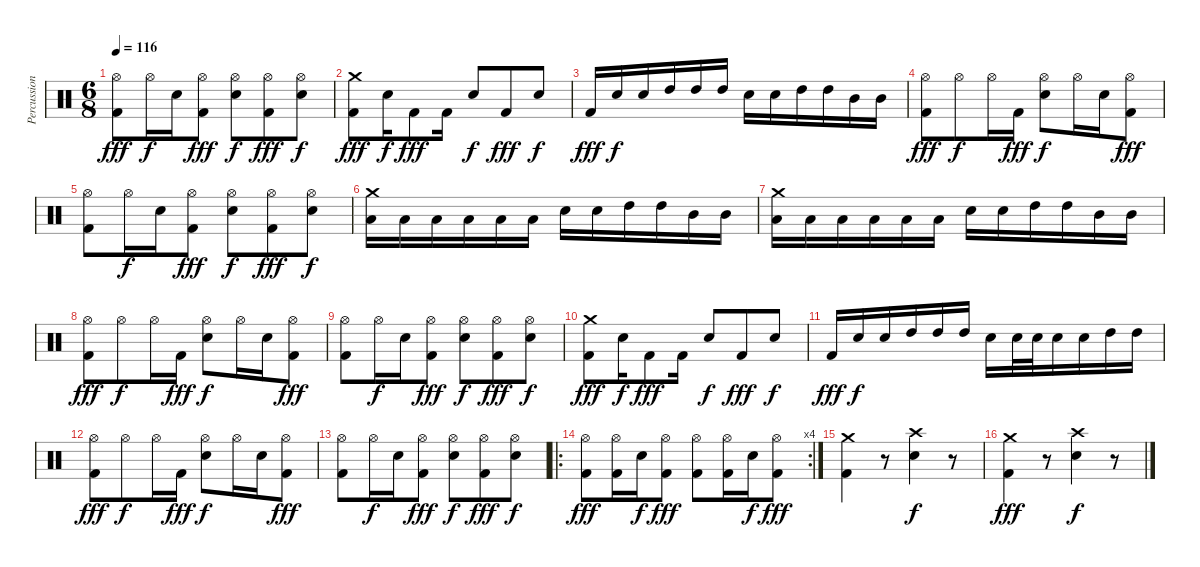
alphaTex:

\track ("Percussions" "Percussion") {instrument percussion}
\staff {score}
\articulation defaults
\ts (6 8)
\tempo 116
\clef neutral
\ks c
("Hi-Hat (open)" "Kick (hit) 2").8{dy fff} "Hi-Hat (open)".16{dy f} "Snare (hit) 2".16 ("Hi-Hat (open)" "Kick (hit) 2").8{dy fff} ("Hi-Hat (open)" "Snare (hit) 2").8{dy f} ("Hi-Hat (open)" "Kick (hit) 2").8{dy fff} ("Hi-Hat (open)" "Snare (hit) 2").8{dy f} |
("Crash medium (hit)" "Kick (hit) 2").8{dy fff} "Snare (hit) 2".16{dy f} "Kick (hit) 2".8{dy fff} "Kick (hit) 2".16 "Snare (hit) 2".8{dy f} "Kick (hit) 2".8{dy fff} "Snare (hit) 2".8{dy f} |
"Kick (hit) 2".16{dy fff} "Snare (hit) 2".16{dy f} "Snare (hit) 2".16 "High Tom (hit)".16 "High Tom (hit)".16 "High Tom (hit)".16 "Snare (hit) 2".16 "Snare (hit) 2".16 "High Tom (hit)".16 "High Tom (hit)".16 "Mid Tom (hit)".16 "Mid Tom (hit)".16 |
("Hi-Hat (open)" "Kick (hit) 2").8{dy fff} "Hi-Hat (open)".8{dy f} "Hi-Hat (open)".16 "Kick (hit) 2".16{dy fff} ("Hi-Hat (open)" "Snare (hit) 2").8{dy f} "Hi-Hat (open)".16 "Snare (hit) 2".16 ("Hi-Hat (open)" "Kick (hit) 2").8{dy fff} |
("Hi-Hat (open)" "Kick (hit) 2").8 "Hi-Hat (open)".16{dy f} "Snare (hit) 2".16 ("Hi-Hat (open)" "Kick (hit) 2").8{dy fff} ("Hi-Hat (open)" "Snare (hit) 2").8{dy f} ("Hi-Hat (open)" "Kick (hit) 2").8{dy fff} ("Hi-Hat (open)" "Snare (hit) 2").8{dy f} |
("Crash medium (hit)" "Low Tom (hit)").16 "Low Tom (hit)".16 "Low Tom (hit)".16 "Low Tom (hit)".16 "Low Tom (hit)".16 "Low Tom (hit)".16 "Snare (hit) 2".16 "Snare (hit) 2".16 "High Tom (hit)".16 "High Tom (hit)".16 "Mid Tom (hit)".16 "Mid Tom (hit)".16 |
("Crash medium (hit)" "Low Tom (hit)").16 "Low Tom (hit)".16 "Low Tom (hit)".16 "Low Tom (hit)".16 "Low Tom (hit)".16 "Low Tom (hit)".16 "Snare (hit) 2".16 "Snare (hit) 2".16 "High Tom (hit)".16 "High Tom (hit)".16 "Mid Tom (hit)".16 "Mid Tom (hit)".16 |
("Hi-Hat (open)" "Kick (hit) 2").8{dy fff} "Hi-Hat (open)".8{dy f} "Hi-Hat (open)".16 "Kick (hit) 2".16{dy fff} ("Hi-Hat (open)" "Snare (hit) 2").8{dy f} "Hi-Hat (open)".16 "Snare (hit) 2".16 ("Hi-Hat (open)" "Kick (hit) 2").8{dy fff} |
("Hi-Hat (open)" "Kick (hit) 2").8 "Hi-Hat (open)".16{dy f} "Snare (hit) 2".16 ("Hi-Hat (open)" "Kick (hit) 2").8{dy fff} ("Hi-Hat (open)" "Snare (hit) 2").8{dy f} ("Hi-Hat (open)" "Kick (hit) 2").8{dy fff} ("Hi-Hat (open)" "Snare (hit) 2").8{dy f} |
("Crash medium (hit)" "Kick (hit) 2").8{dy fff} "Snare (hit) 2".16{dy f} "Kick (hit) 2".8{dy fff} "Kick (hit) 2".16 "Snare (hit) 2".8{dy f} "Kick (hit) 2".8{dy fff} "Snare (hit) 2".8{dy f} |
"Kick (hit) 2".16{dy fff} "Snare (hit) 2".16{dy f} "Snare (hit) 2".16 "High Tom (hit)".16 "High Tom (hit)".16 "High Tom (hit)".16 "Snare (hit) 2".16 "Snare (hit) 2".32 "Snare (hit) 2".32 "Snare (hit) 2".16 "Snare (hit) 2".16 "High Tom (hit)".16 "High Tom (hit)".16 |
("Hi-Hat (open)" "Kick (hit) 2").8{dy fff} "Hi-Hat (open)".8{dy f} "Hi-Hat (open)".16 "Kick (hit) 2".16{dy fff} ("Hi-Hat (open)" "Snare (hit) 2").8{dy f} "Hi-Hat (open)".16 "Snare (hit) 2".16 ("Hi-Hat (open)" "Kick (hit) 2").8{dy fff} |
("Hi-Hat (open)" "Kick (hit) 2").8 "Hi-Hat (open)".16{dy f} "Snare (hit) 2".16 ("Hi-Hat (open)" "Kick (hit) 2").8{dy fff} ("Hi-Hat (open)" "Snare (hit) 2").8{dy f} ("Hi-Hat (open)" "Kick (hit) 2").8{dy fff} ("Hi-Hat (open)" "Snare (hit) 2").8{dy f} |
\ro
\rc 4
("Hi-Hat (open)" "Kick (hit) 2").8{dy fff} ("Hi-Hat (open)" "Kick (hit) 2").16 "Snare (hit) 2".16{dy f} ("Hi-Hat (open)" "Kick (hit) 2").8{dy fff} ("Hi-Hat (open)" "Kick (hit) 2").8 ("Hi-Hat (open)" "Kick (hit) 2").16 "Snare (hit) 2".16{dy f} ("Hi-Hat (open)" "Kick (hit) 2").8{dy fff} |
("Crash medium (hit)" "Kick (hit) 2").4 r.8 ("Crash high (hit)" "Snare (hit) 2").4{dy f} r.8 |
("Crash medium (hit)" "Kick (hit) 2").4{dy fff} r.8 ("Crash high (hit)" "Snare (hit) 2").4{dy f} r.8
